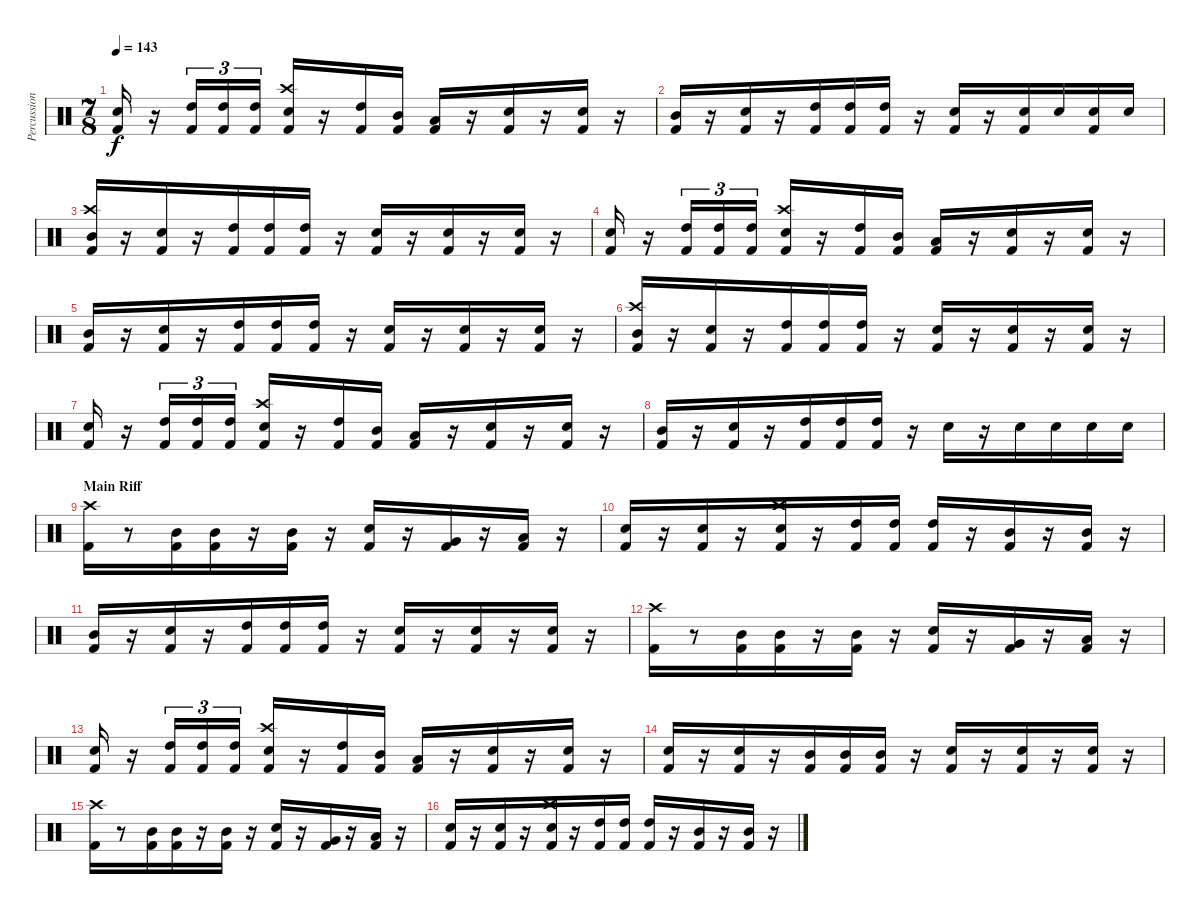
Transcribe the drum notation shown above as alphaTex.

\track ("Percussion" "Percussion") {instrument percussion}
\staff {score}
\articulation defaults
\ts (7 8)
\tempo 143
\clef neutral
\ks c
("Electric Snare (hit)" "Kick (hit) 2").16{dy f} r.16 ("High Tom (hit)" "Kick (hit) 2").16{tu (3 2)} ("High Tom (hit)" "Kick (hit) 2").16{tu (3 2)} ("High Tom (hit)" "Kick (hit) 2").16{tu (3 2)} ("Crash high (hit)" "Snare (hit) 2" "Kick (hit) 2").16 r.16 ("High Tom (hit)" "Kick (hit) 2").16 ("Mid Tom (hit)" "Kick (hit) 2").16 ("Low Tom (hit)" "Kick (hit) 2").16 r.16 ("Snare (hit) 2" "Kick (hit) 2").16 r.16 ("Snare (hit) 2" "Kick (hit) 2").16 r.16 |
("Mid Tom (hit)" "Kick (hit) 2").16 r.16 ("Snare (hit) 2" "Kick (hit) 2").16 r.16 ("High Tom (hit)" "Kick (hit) 2").16 ("High Tom (hit)" "Kick (hit) 2").16 ("High Tom (hit)" "Kick (hit) 2").16 r.16 ("Snare (hit) 2" "Kick (hit) 2").16 r.16 ("Snare (hit) 2" "Kick (hit) 2").16 "Snare (hit) 2".16 ("Snare (hit) 2" "Kick (hit) 2").16 "Snare (hit) 2".16 |
("Crash high (hit)" "Mid Tom (hit)" "Kick (hit) 2").16 r.16 ("Snare (hit) 2" "Kick (hit) 2").16 r.16 ("High Tom (hit)" "Kick (hit) 2").16 ("High Tom (hit)" "Kick (hit) 2").16 ("High Tom (hit)" "Kick (hit) 2").16 r.16 ("Snare (hit) 2" "Kick (hit) 2").16 r.16 ("Snare (hit) 2" "Kick (hit) 2").16 r.16 ("Snare (hit) 2" "Kick (hit) 2").16 r.16 |
("Electric Snare (hit)" "Kick (hit) 2").16 r.16 ("High Tom (hit)" "Kick (hit) 2").16{tu (3 2)} ("High Tom (hit)" "Kick (hit) 2").16{tu (3 2)} ("High Tom (hit)" "Kick (hit) 2").16{tu (3 2)} ("Crash high (hit)" "Snare (hit) 2" "Kick (hit) 2").16 r.16 ("High Tom (hit)" "Kick (hit) 2").16 ("Mid Tom (hit)" "Kick (hit) 2").16 ("Low Tom (hit)" "Kick (hit) 2").16 r.16 ("Snare (hit) 2" "Kick (hit) 2").16 r.16 ("Snare (hit) 2" "Kick (hit) 2").16 r.16 |
("Mid Tom (hit)" "Kick (hit) 2").16 r.16 ("Snare (hit) 2" "Kick (hit) 2").16 r.16 ("High Tom (hit)" "Kick (hit) 2").16 ("High Tom (hit)" "Kick (hit) 2").16 ("High Tom (hit)" "Kick (hit) 2").16 r.16 ("Snare (hit) 2" "Kick (hit) 2").16 r.16 ("Snare (hit) 2" "Kick (hit) 2").16 r.16 ("Snare (hit) 2" "Kick (hit) 2").16 r.16 |
("Crash high (hit)" "Mid Tom (hit)" "Kick (hit) 2").16 r.16 ("Snare (hit) 2" "Kick (hit) 2").16 r.16 ("High Tom (hit)" "Kick (hit) 2").16 ("High Tom (hit)" "Kick (hit) 2").16 ("High Tom (hit)" "Kick (hit) 2").16 r.16 ("Snare (hit) 2" "Kick (hit) 2").16 r.16 ("Snare (hit) 2" "Kick (hit) 2").16 r.16 ("Snare (hit) 2" "Kick (hit) 2").16 r.16 |
("Electric Snare (hit)" "Kick (hit) 2").16 r.16 ("High Tom (hit)" "Kick (hit) 2").16{tu (3 2)} ("High Tom (hit)" "Kick (hit) 2").16{tu (3 2)} ("High Tom (hit)" "Kick (hit) 2").16{tu (3 2)} ("Crash high (hit)" "Snare (hit) 2" "Kick (hit) 2").16 r.16 ("High Tom (hit)" "Kick (hit) 2").16 ("Mid Tom (hit)" "Kick (hit) 2").16 ("Low Tom (hit)" "Kick (hit) 2").16 r.16 ("Snare (hit) 2" "Kick (hit) 2").16 r.16 ("Snare (hit) 2" "Kick (hit) 2").16 r.16 |
("Mid Tom (hit)" "Kick (hit) 2").16 r.16 ("Snare (hit) 2" "Kick (hit) 2").16 r.16 ("High Tom (hit)" "Kick (hit) 2").16 ("High Tom (hit)" "Kick (hit) 2").16 ("High Tom (hit)" "Kick (hit) 2").16 r.16 "Snare (hit) 2".16 r.16 "Snare (hit) 2".16 "Snare (hit) 2".16 "Snare (hit) 2".16 "Snare (hit) 2".16 |
\section ("" "Main Riff")
("Crash high (hit)" "Kick (hit) 2").16 r.8 ("Mid Tom (hit)" "Kick (hit) 2").16 ("Mid Tom (hit)" "Kick (hit) 2").16 r.16 ("Mid Tom (hit)" "Kick (hit) 2").16 r.16 ("Snare (hit) 2" "Kick (hit) 2").16 r.16 ("Very Low Tom (hit)" "Kick (hit) 2").16 r.16 ("Low Tom (hit)" "Kick (hit) 2").16 r.16 |
("Snare (hit) 2" "Kick (hit) 2").16 r.16 ("Snare (hit) 2" "Kick (hit) 2").16 r.16 ("Crash high (hit)" "Snare (hit) 2" "Kick (hit) 2").16 r.16 ("High Tom (hit)" "Kick (hit) 2").16 ("High Tom (hit)" "Kick (hit) 2").16 ("High Tom (hit)" "Kick (hit) 2").16 r.16 ("Mid Tom (hit)" "Kick (hit) 2").16 r.16 ("Mid Tom (hit)" "Kick (hit) 2").16 r.16 |
("Mid Tom (hit)" "Kick (hit) 2").16 r.16 ("Snare (hit) 2" "Kick (hit) 2").16 r.16 ("High Tom (hit)" "Kick (hit) 2").16 ("High Tom (hit)" "Kick (hit) 2").16 ("High Tom (hit)" "Kick (hit) 2").16 r.16 ("Snare (hit) 2" "Kick (hit) 2").16 r.16 ("Snare (hit) 2" "Kick (hit) 2").16 r.16 ("Snare (hit) 2" "Kick (hit) 2").16 r.16 |
("Crash high (hit)" "Kick (hit) 2").16 r.8 ("Mid Tom (hit)" "Kick (hit) 2").16 ("Mid Tom (hit)" "Kick (hit) 2").16 r.16 ("Mid Tom (hit)" "Kick (hit) 2").16 r.16 ("Snare (hit) 2" "Kick (hit) 2").16 r.16 ("Very Low Tom (hit)" "Kick (hit) 2").16 r.16 ("Low Tom (hit)" "Kick (hit) 2").16 r.16 |
("Electric Snare (hit)" "Kick (hit) 2").16 r.16 ("High Tom (hit)" "Kick (hit) 2").16{tu (3 2)} ("High Tom (hit)" "Kick (hit) 2").16{tu (3 2)} ("High Tom (hit)" "Kick (hit) 2").16{tu (3 2)} ("Crash high (hit)" "Snare (hit) 2" "Kick (hit) 2").16 r.16 ("High Tom (hit)" "Kick (hit) 2").16 ("Mid Tom (hit)" "Kick (hit) 2").16 ("Low Tom (hit)" "Kick (hit) 2").16 r.16 ("Snare (hit) 2" "Kick (hit) 2").16 r.16 ("Snare (hit) 2" "Kick (hit) 2").16 r.16 |
("Snare (hit) 2" "Kick (hit) 2").16 r.16 ("Snare (hit) 2" "Kick (hit) 2").16 r.16 ("Mid Tom (hit)" "Kick (hit) 2").16 ("Mid Tom (hit)" "Kick (hit) 2").16 ("Mid Tom (hit)" "Kick (hit) 2").16 r.16 ("Snare (hit) 2" "Kick (hit) 2").16 r.16 ("Snare (hit) 2" "Kick (hit) 2").16 r.16 ("Snare (hit) 2" "Kick (hit) 2").16 r.16 |
("Crash high (hit)" "Kick (hit) 2").16 r.8 ("Mid Tom (hit)" "Kick (hit) 2").16 ("Mid Tom (hit)" "Kick (hit) 2").16 r.16 ("Mid Tom (hit)" "Kick (hit) 2").16 r.16 ("Snare (hit) 2" "Kick (hit) 2").16 r.16 ("Very Low Tom (hit)" "Kick (hit) 2").16 r.16 ("Low Tom (hit)" "Kick (hit) 2").16 r.16 |
("Snare (hit) 2" "Kick (hit) 2").16 r.16 ("Snare (hit) 2" "Kick (hit) 2").16 r.16 ("Crash high (hit)" "Snare (hit) 2" "Kick (hit) 2").16 r.16 ("High Tom (hit)" "Kick (hit) 2").16 ("High Tom (hit)" "Kick (hit) 2").16 ("High Tom (hit)" "Kick (hit) 2").16 r.16 ("Mid Tom (hit)" "Kick (hit) 2").16 r.16 ("Mid Tom (hit)" "Kick (hit) 2").16 r.16
